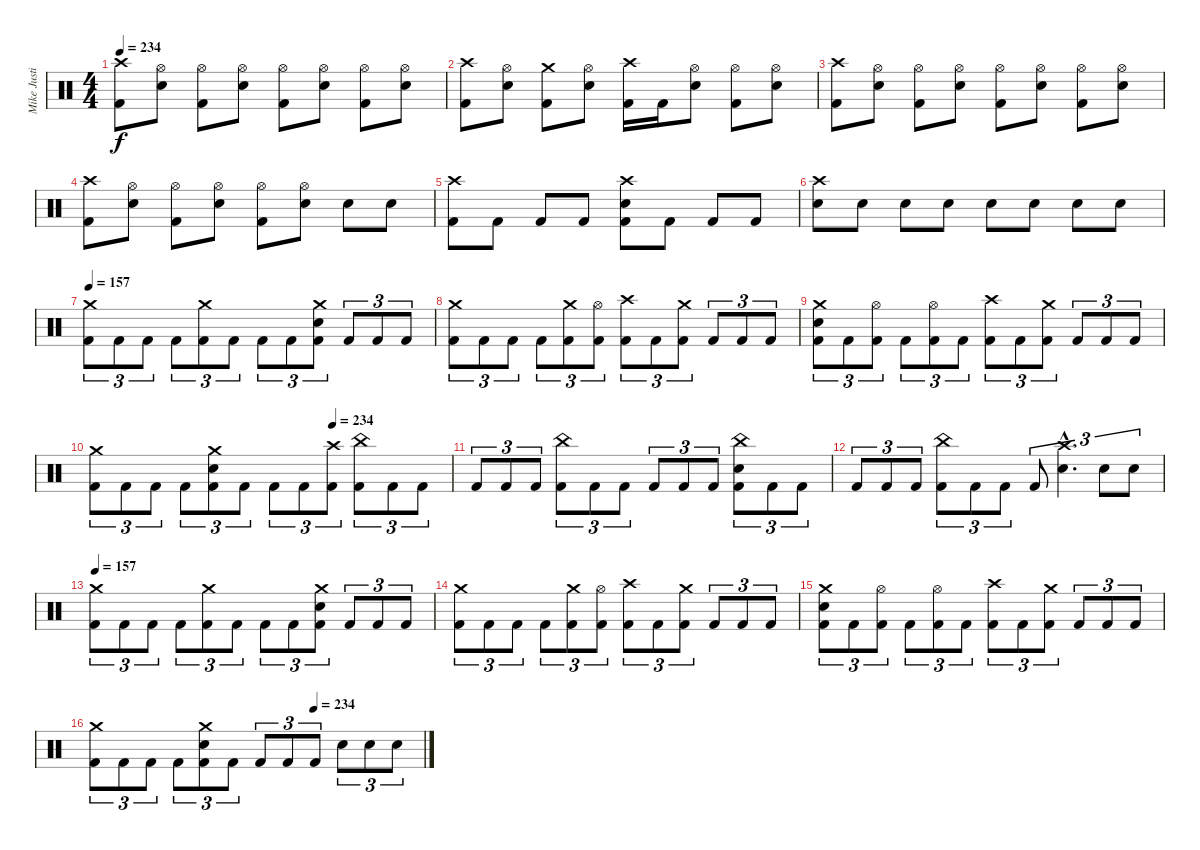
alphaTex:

\track ("Mike Justian (Drums)" "Mike Justi") {instrument percussion}
\staff {score}
\articulation defaults
\ts (4 4)
\tempo 234
\clef neutral
\ks c
("Crash high (hit)" "Kick (hit) 2").8{dy f} ("Hi-Hat (open)" "Snare (hit) 2").8 ("Hi-Hat (open)" "Kick (hit) 2").8 ("Hi-Hat (open)" "Snare (hit) 2").8 ("Hi-Hat (open)" "Kick (hit) 2").8 ("Hi-Hat (open)" "Snare (hit) 2").8 ("Hi-Hat (open)" "Kick (hit) 2").8 ("Hi-Hat (open)" "Snare (hit) 2").8 |
("Crash high (hit)" "Kick (hit) 2").8 ("Hi-Hat (open)" "Snare (hit) 2").8 ("Crash medium (hit)" "Kick (hit) 2").8 ("Hi-Hat (open)" "Snare (hit) 2").8 ("Crash high (hit)" "Kick (hit) 2").16 "Kick (hit) 2".16 ("Hi-Hat (open)" "Snare (hit) 2").8 ("Hi-Hat (open)" "Kick (hit) 2").8 ("Hi-Hat (open)" "Snare (hit) 2").8 |
("Crash high (hit)" "Kick (hit) 2").8 ("Hi-Hat (open)" "Snare (hit) 2").8 ("Hi-Hat (open)" "Kick (hit) 2").8 ("Hi-Hat (open)" "Snare (hit) 2").8 ("Hi-Hat (open)" "Kick (hit) 2").8 ("Hi-Hat (open)" "Snare (hit) 2").8 ("Hi-Hat (open)" "Kick (hit) 2").8 ("Hi-Hat (open)" "Snare (hit) 2").8 |
("Crash high (hit)" "Kick (hit) 2").8 ("Hi-Hat (open)" "Snare (hit) 2").8 ("Hi-Hat (open)" "Kick (hit) 2").8 ("Hi-Hat (open)" "Snare (hit) 2").8 ("Hi-Hat (open)" "Kick (hit) 2").8 ("Hi-Hat (open)" "Snare (hit) 2").8 "Snare (hit) 2".8 "Snare (hit) 2".8 |
("Crash high (hit)" "Kick (hit) 2").8 "Kick (hit) 2".8 "Kick (hit) 2".8 "Kick (hit) 2".8 ("Kick (hit) 2" "Crash high (hit)" "Snare (hit) 2").8 "Kick (hit) 2".8 "Kick (hit) 2".8 "Kick (hit) 2".8 |
("Crash high (hit)" "Snare (hit) 2").8 "Snare (hit) 2".8 "Snare (hit) 2".8 "Snare (hit) 2".8 "Snare (hit) 2".8 "Snare (hit) 2".8 "Snare (hit) 2".8 "Snare (hit) 2".8 |
\tempo 157
("Crash medium (hit)" "Kick (hit) 2").8{tu (3 2)} "Kick (hit) 2".8{tu (3 2)} "Kick (hit) 2".8{tu (3 2)} "Kick (hit) 2".8{tu (3 2)} ("Crash medium (hit)" "Kick (hit) 2").8{tu (3 2)} "Kick (hit) 2".8{tu (3 2)} "Kick (hit) 2".8{tu (3 2)} "Kick (hit) 2".8{tu (3 2)} ("Snare (hit) 2" "Crash medium (hit)" "Kick (hit) 2").8{tu (3 2)} "Kick (hit) 2".8{tu (3 2)} "Kick (hit) 2".8{tu (3 2)} "Kick (hit) 2".8{tu (3 2)} |
("Crash medium (hit)" "Kick (hit) 2").8{tu (3 2)} "Kick (hit) 2".8{tu (3 2)} "Kick (hit) 2".8{tu (3 2)} "Kick (hit) 2".8{tu (3 2)} ("Crash medium (hit)" "Kick (hit) 2").8{tu (3 2)} ("Hi-Hat (open)" "Kick (hit) 2").8{tu (3 2)} ("Crash high (hit)" "Kick (hit) 2").8{tu (3 2)} "Kick (hit) 2".8{tu (3 2)} ("Crash medium (hit)" "Kick (hit) 2").8{tu (3 2)} "Kick (hit) 2".8{tu (3 2)} "Kick (hit) 2".8{tu (3 2)} "Kick (hit) 2".8{tu (3 2)} |
("Crash medium (hit)" "Snare (hit) 2" "Kick (hit) 2").8{tu (3 2)} "Kick (hit) 2".8{tu (3 2)} ("Hi-Hat (open)" "Kick (hit) 2").8{tu (3 2)} "Kick (hit) 2".8{tu (3 2)} ("Hi-Hat (open)" "Kick (hit) 2").8{tu (3 2)} "Kick (hit) 2".8{tu (3 2)} ("Crash high (hit)" "Kick (hit) 2").8{tu (3 2)} "Kick (hit) 2".8{tu (3 2)} ("Crash medium (hit)" "Kick (hit) 2").8{tu (3 2)} "Kick (hit) 2".8{tu (3 2)} "Kick (hit) 2".8{tu (3 2)} "Kick (hit) 2".8{tu (3 2)} |
\tempo (234 0.6666666666666666)
("Crash medium (hit)" "Kick (hit) 2").8{tu (3 2)} "Kick (hit) 2".8{tu (3 2)} "Kick (hit) 2".8{tu (3 2)} "Kick (hit) 2".8{tu (3 2)} ("Snare (hit) 2" "Crash medium (hit)" "Kick (hit) 2").8{tu (3 2)} "Kick (hit) 2".8{tu (3 2)} "Kick (hit) 2".8{tu (3 2)} "Kick (hit) 2".8{tu (3 2)} ("Crash high (hit)" "Kick (hit) 2").8{tu (3 2)} ("China (hit)" "Kick (hit) 2").8{tu (3 2)} "Kick (hit) 2".8{tu (3 2)} "Kick (hit) 2".8{tu (3 2)} |
"Kick (hit) 2".8{tu (3 2)} "Kick (hit) 2".8{tu (3 2)} "Kick (hit) 2".8{tu (3 2)} ("China (hit)" "Kick (hit) 2").8{tu (3 2)} "Kick (hit) 2".8{tu (3 2)} "Kick (hit) 2".8{tu (3 2)} "Kick (hit) 2".8{tu (3 2)} "Kick (hit) 2".8{tu (3 2)} "Kick (hit) 2".8{tu (3 2)} ("Snare (hit) 2" "China (hit)" "Kick (hit) 2").8{tu (3 2)} "Kick (hit) 2".8{tu (3 2)} "Kick (hit) 2".8{tu (3 2)} |
"Kick (hit) 2".8{tu (3 2)} "Kick (hit) 2".8{tu (3 2)} "Kick (hit) 2".8{tu (3 2)} ("China (hit)" "Kick (hit) 2").8{tu (3 2)} "Kick (hit) 2".8{tu (3 2)} "Kick (hit) 2".8{tu (3 2)} "Kick (hit) 2".8{tu (3 2)} ("Crash high (hit)"{hac} "Snare (hit) 2"{hac}).4{d tu (3 2)} "Snare (hit) 2".8{tu (3 2)} "Snare (hit) 2".8{tu (3 2)} |
\tempo 157
("Crash medium (hit)" "Kick (hit) 2").8{tu (3 2)} "Kick (hit) 2".8{tu (3 2)} "Kick (hit) 2".8{tu (3 2)} "Kick (hit) 2".8{tu (3 2)} ("Crash medium (hit)" "Kick (hit) 2").8{tu (3 2)} "Kick (hit) 2".8{tu (3 2)} "Kick (hit) 2".8{tu (3 2)} "Kick (hit) 2".8{tu (3 2)} ("Snare (hit) 2" "Crash medium (hit)" "Kick (hit) 2").8{tu (3 2)} "Kick (hit) 2".8{tu (3 2)} "Kick (hit) 2".8{tu (3 2)} "Kick (hit) 2".8{tu (3 2)} |
("Crash medium (hit)" "Kick (hit) 2").8{tu (3 2)} "Kick (hit) 2".8{tu (3 2)} "Kick (hit) 2".8{tu (3 2)} "Kick (hit) 2".8{tu (3 2)} ("Crash medium (hit)" "Kick (hit) 2").8{tu (3 2)} ("Hi-Hat (open)" "Kick (hit) 2").8{tu (3 2)} ("Crash high (hit)" "Kick (hit) 2").8{tu (3 2)} "Kick (hit) 2".8{tu (3 2)} ("Crash medium (hit)" "Kick (hit) 2").8{tu (3 2)} "Kick (hit) 2".8{tu (3 2)} "Kick (hit) 2".8{tu (3 2)} "Kick (hit) 2".8{tu (3 2)} |
("Crash medium (hit)" "Snare (hit) 2" "Kick (hit) 2").8{tu (3 2)} "Kick (hit) 2".8{tu (3 2)} ("Hi-Hat (open)" "Kick (hit) 2").8{tu (3 2)} "Kick (hit) 2".8{tu (3 2)} ("Hi-Hat (open)" "Kick (hit) 2").8{tu (3 2)} "Kick (hit) 2".8{tu (3 2)} ("Crash high (hit)" "Kick (hit) 2").8{tu (3 2)} "Kick (hit) 2".8{tu (3 2)} ("Crash medium (hit)" "Kick (hit) 2").8{tu (3 2)} "Kick (hit) 2".8{tu (3 2)} "Kick (hit) 2".8{tu (3 2)} "Kick (hit) 2".8{tu (3 2)} |
\tempo (234 0.6666666666666666)
("Crash medium (hit)" "Kick (hit) 2").8{tu (3 2)} "Kick (hit) 2".8{tu (3 2)} "Kick (hit) 2".8{tu (3 2)} "Kick (hit) 2".8{tu (3 2)} ("Snare (hit) 2" "Crash medium (hit)" "Kick (hit) 2").8{tu (3 2)} "Kick (hit) 2".8{tu (3 2)} "Kick (hit) 2".8{tu (3 2)} "Kick (hit) 2".8{tu (3 2)} "Kick (hit) 2".8{tu (3 2)} "Snare (hit) 2".8{tu (3 2)} "Snare (hit) 2".8{tu (3 2)} "Snare (hit) 2".8{tu (3 2)}
